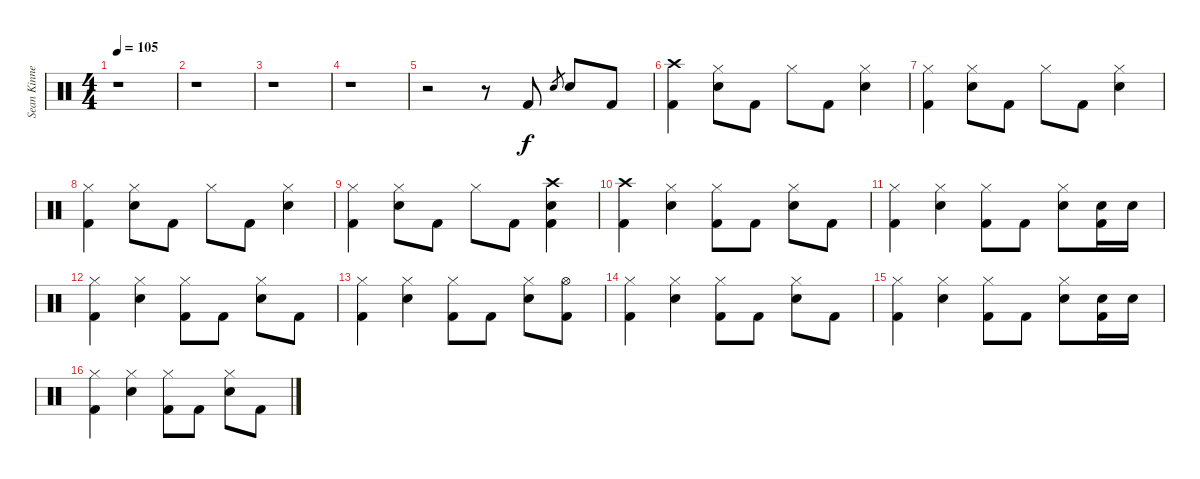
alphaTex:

\track ("Sean Kinney- Drums" "Sean Kinne") {instrument percussion}
\staff {score}
\articulation defaults
\ts (4 4)
\tempo 105
\clef neutral
\ks c
r.1{dy f} |
r.1 |
r.1 |
r.1 |
r.2 r.8 "Kick (hit) 2".8 "Electric Snare (hit)".8{gr} "Electric Snare (hit)".8 "Kick (hit) 2".8 |
("Crash high (hit)" "Kick (hit) 2").4 ("Hi-Hat (closed)" "Electric Snare (hit)").8 "Kick (hit) 2".8 "Hi-Hat (closed)".8 "Kick (hit) 2".8 ("Hi-Hat (closed)" "Electric Snare (hit)").4 |
("Hi-Hat (closed)" "Kick (hit) 2").4 ("Hi-Hat (closed)" "Electric Snare (hit)").8 "Kick (hit) 2".8 "Hi-Hat (closed)".8 "Kick (hit) 2".8 ("Hi-Hat (closed)" "Electric Snare (hit)").4 |
("Hi-Hat (closed)" "Kick (hit) 2").4 ("Hi-Hat (closed)" "Electric Snare (hit)").8 "Kick (hit) 2".8 "Hi-Hat (closed)".8 "Kick (hit) 2".8 ("Hi-Hat (closed)" "Electric Snare (hit)").4 |
("Hi-Hat (closed)" "Kick (hit) 2").4 ("Hi-Hat (closed)" "Electric Snare (hit)").8 "Kick (hit) 2".8 "Hi-Hat (closed)".8 "Kick (hit) 2".8 ("Crash high (hit)" "Electric Snare (hit)" "Kick (hit) 2").4 |
("Crash high (hit)" "Kick (hit) 2").4 ("Hi-Hat (closed)" "Electric Snare (hit)").4 ("Hi-Hat (closed)" "Kick (hit) 2").8 "Kick (hit) 2".8 ("Hi-Hat (closed)" "Electric Snare (hit)").8 "Kick (hit) 2".8 |
("Hi-Hat (closed)" "Kick (hit) 2").4 ("Hi-Hat (closed)" "Electric Snare (hit)").4 ("Hi-Hat (closed)" "Kick (hit) 2").8 "Kick (hit) 2".8 ("Hi-Hat (closed)" "Electric Snare (hit)").8 ("Electric Snare (hit)" "Kick (hit) 2").16 "Electric Snare (hit)".16 |
("Hi-Hat (closed)" "Kick (hit) 2").4 ("Hi-Hat (closed)" "Electric Snare (hit)").4 ("Hi-Hat (closed)" "Kick (hit) 2").8 "Kick (hit) 2".8 ("Hi-Hat (closed)" "Electric Snare (hit)").8 "Kick (hit) 2".8 |
("Hi-Hat (closed)" "Kick (hit) 2").4 ("Hi-Hat (closed)" "Electric Snare (hit)").4 ("Hi-Hat (closed)" "Kick (hit) 2").8 "Kick (hit) 2".8 ("Hi-Hat (closed)" "Electric Snare (hit)").8 ("Hi-Hat (open)" "Kick (hit) 2").8 |
("Hi-Hat (closed)" "Kick (hit) 2").4 ("Hi-Hat (closed)" "Electric Snare (hit)").4 ("Hi-Hat (closed)" "Kick (hit) 2").8 "Kick (hit) 2".8 ("Hi-Hat (closed)" "Electric Snare (hit)").8 "Kick (hit) 2".8 |
("Hi-Hat (closed)" "Kick (hit) 2").4 ("Hi-Hat (closed)" "Electric Snare (hit)").4 ("Hi-Hat (closed)" "Kick (hit) 2").8 "Kick (hit) 2".8 ("Hi-Hat (closed)" "Electric Snare (hit)").8 ("Electric Snare (hit)" "Kick (hit) 2").16 "Electric Snare (hit)".16 |
("Hi-Hat (closed)" "Kick (hit) 2").4 ("Hi-Hat (closed)" "Electric Snare (hit)").4 ("Hi-Hat (closed)" "Kick (hit) 2").8 "Kick (hit) 2".8 ("Hi-Hat (closed)" "Electric Snare (hit)").8 "Kick (hit) 2".8
